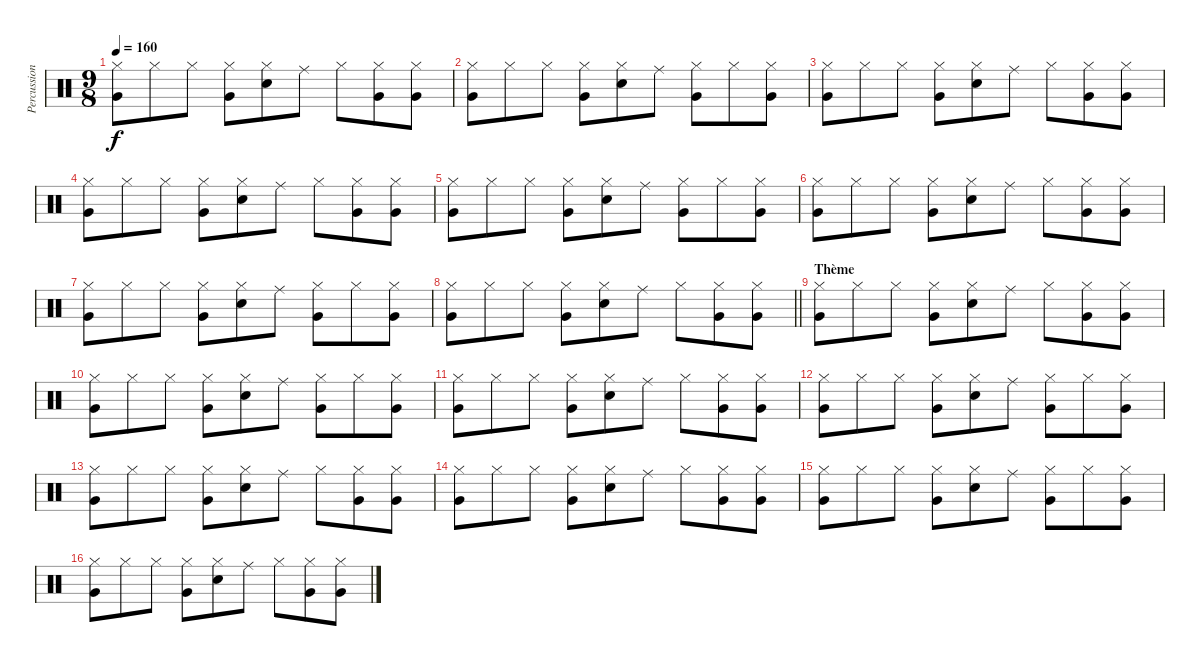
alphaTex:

\track ("Percussions" "Percussion") {instrument percussion}
\staff {score}
\articulation defaults
\ts (9 8)
\tempo 160
\clef neutral
\ks c
("Hi-Hat (closed)" "Very Low Tom (hit)").8{dy f} "Hi-Hat (closed)".8 "Hi-Hat (closed)".8 ("Hi-Hat (closed)" "Very Low Tom (hit)").8 ("Hi-Hat (closed)" "Snare (hit) 2").8 "Ride (middle)".8 "Hi-Hat (closed)".8 ("Hi-Hat (closed)" "Very Low Tom (hit)").8 ("Hi-Hat (closed)" "Very Low Tom (hit)").8 |
("Hi-Hat (closed)" "Very Low Tom (hit)").8 "Hi-Hat (closed)".8 "Hi-Hat (closed)".8 ("Hi-Hat (closed)" "Very Low Tom (hit)").8 ("Hi-Hat (closed)" "Snare (hit) 2").8 "Ride (middle)".8 ("Hi-Hat (closed)" "Very Low Tom (hit)").8 "Hi-Hat (closed)".8 ("Hi-Hat (closed)" "Very Low Tom (hit)").8 |
("Hi-Hat (closed)" "Very Low Tom (hit)").8 "Hi-Hat (closed)".8 "Hi-Hat (closed)".8 ("Hi-Hat (closed)" "Very Low Tom (hit)").8 ("Hi-Hat (closed)" "Snare (hit) 2").8 "Ride (middle)".8 "Hi-Hat (closed)".8 ("Hi-Hat (closed)" "Very Low Tom (hit)").8 ("Hi-Hat (closed)" "Very Low Tom (hit)").8 |
("Hi-Hat (closed)" "Very Low Tom (hit)").8 "Hi-Hat (closed)".8 "Hi-Hat (closed)".8 ("Hi-Hat (closed)" "Very Low Tom (hit)").8 ("Hi-Hat (closed)" "Snare (hit) 2").8 "Ride (middle)".8 "Hi-Hat (closed)".8 ("Hi-Hat (closed)" "Very Low Tom (hit)").8 ("Hi-Hat (closed)" "Very Low Tom (hit)").8 |
("Hi-Hat (closed)" "Very Low Tom (hit)").8 "Hi-Hat (closed)".8 "Hi-Hat (closed)".8 ("Hi-Hat (closed)" "Very Low Tom (hit)").8 ("Hi-Hat (closed)" "Snare (hit) 2").8 "Ride (middle)".8 ("Hi-Hat (closed)" "Very Low Tom (hit)").8 "Hi-Hat (closed)".8 ("Hi-Hat (closed)" "Very Low Tom (hit)").8 |
("Hi-Hat (closed)" "Very Low Tom (hit)").8 "Hi-Hat (closed)".8 "Hi-Hat (closed)".8 ("Hi-Hat (closed)" "Very Low Tom (hit)").8 ("Hi-Hat (closed)" "Snare (hit) 2").8 "Ride (middle)".8 "Hi-Hat (closed)".8 ("Hi-Hat (closed)" "Very Low Tom (hit)").8 ("Hi-Hat (closed)" "Very Low Tom (hit)").8 |
("Hi-Hat (closed)" "Very Low Tom (hit)").8 "Hi-Hat (closed)".8 "Hi-Hat (closed)".8 ("Hi-Hat (closed)" "Very Low Tom (hit)").8 ("Hi-Hat (closed)" "Snare (hit) 2").8 "Ride (middle)".8 ("Hi-Hat (closed)" "Very Low Tom (hit)").8 "Hi-Hat (closed)".8 ("Hi-Hat (closed)" "Very Low Tom (hit)").8 |
\barLineRight lightlight
("Hi-Hat (closed)" "Very Low Tom (hit)").8 "Hi-Hat (closed)".8 "Hi-Hat (closed)".8 ("Hi-Hat (closed)" "Very Low Tom (hit)").8 ("Hi-Hat (closed)" "Snare (hit) 2").8 "Ride (middle)".8 "Hi-Hat (closed)".8 ("Hi-Hat (closed)" "Very Low Tom (hit)").8 ("Hi-Hat (closed)" "Very Low Tom (hit)").8 |
\section ("" "Thème")
("Hi-Hat (closed)" "Very Low Tom (hit)").8 "Hi-Hat (closed)".8 "Hi-Hat (closed)".8 ("Hi-Hat (closed)" "Very Low Tom (hit)").8 ("Hi-Hat (closed)" "Snare (hit) 2").8 "Ride (middle)".8 "Hi-Hat (closed)".8 ("Hi-Hat (closed)" "Very Low Tom (hit)").8 ("Hi-Hat (closed)" "Very Low Tom (hit)").8 |
("Hi-Hat (closed)" "Very Low Tom (hit)").8 "Hi-Hat (closed)".8 "Hi-Hat (closed)".8 ("Hi-Hat (closed)" "Very Low Tom (hit)").8 ("Hi-Hat (closed)" "Snare (hit) 2").8 "Ride (middle)".8 ("Hi-Hat (closed)" "Very Low Tom (hit)").8 "Hi-Hat (closed)".8 ("Hi-Hat (closed)" "Very Low Tom (hit)").8 |
("Hi-Hat (closed)" "Very Low Tom (hit)").8 "Hi-Hat (closed)".8 "Hi-Hat (closed)".8 ("Hi-Hat (closed)" "Very Low Tom (hit)").8 ("Hi-Hat (closed)" "Snare (hit) 2").8 "Ride (middle)".8 "Hi-Hat (closed)".8 ("Hi-Hat (closed)" "Very Low Tom (hit)").8 ("Hi-Hat (closed)" "Very Low Tom (hit)").8 |
("Hi-Hat (closed)" "Very Low Tom (hit)").8 "Hi-Hat (closed)".8 "Hi-Hat (closed)".8 ("Hi-Hat (closed)" "Very Low Tom (hit)").8 ("Hi-Hat (closed)" "Snare (hit) 2").8 "Ride (middle)".8 ("Hi-Hat (closed)" "Very Low Tom (hit)").8 "Hi-Hat (closed)".8 ("Hi-Hat (closed)" "Very Low Tom (hit)").8 |
("Hi-Hat (closed)" "Very Low Tom (hit)").8 "Hi-Hat (closed)".8 "Hi-Hat (closed)".8 ("Hi-Hat (closed)" "Very Low Tom (hit)").8 ("Hi-Hat (closed)" "Snare (hit) 2").8 "Ride (middle)".8 "Hi-Hat (closed)".8 ("Hi-Hat (closed)" "Very Low Tom (hit)").8 ("Hi-Hat (closed)" "Very Low Tom (hit)").8 |
("Hi-Hat (closed)" "Very Low Tom (hit)").8 "Hi-Hat (closed)".8 "Hi-Hat (closed)".8 ("Hi-Hat (closed)" "Very Low Tom (hit)").8 ("Hi-Hat (closed)" "Snare (hit) 2").8 "Ride (middle)".8 "Hi-Hat (closed)".8 ("Hi-Hat (closed)" "Very Low Tom (hit)").8 ("Hi-Hat (closed)" "Very Low Tom (hit)").8 |
("Hi-Hat (closed)" "Very Low Tom (hit)").8 "Hi-Hat (closed)".8 "Hi-Hat (closed)".8 ("Hi-Hat (closed)" "Very Low Tom (hit)").8 ("Hi-Hat (closed)" "Snare (hit) 2").8 "Ride (middle)".8 ("Hi-Hat (closed)" "Very Low Tom (hit)").8 "Hi-Hat (closed)".8 ("Hi-Hat (closed)" "Very Low Tom (hit)").8 |
("Hi-Hat (closed)" "Very Low Tom (hit)").8 "Hi-Hat (closed)".8 "Hi-Hat (closed)".8 ("Hi-Hat (closed)" "Very Low Tom (hit)").8 ("Hi-Hat (closed)" "Snare (hit) 2").8 "Ride (middle)".8 "Hi-Hat (closed)".8 ("Hi-Hat (closed)" "Very Low Tom (hit)").8 ("Hi-Hat (closed)" "Very Low Tom (hit)").8
